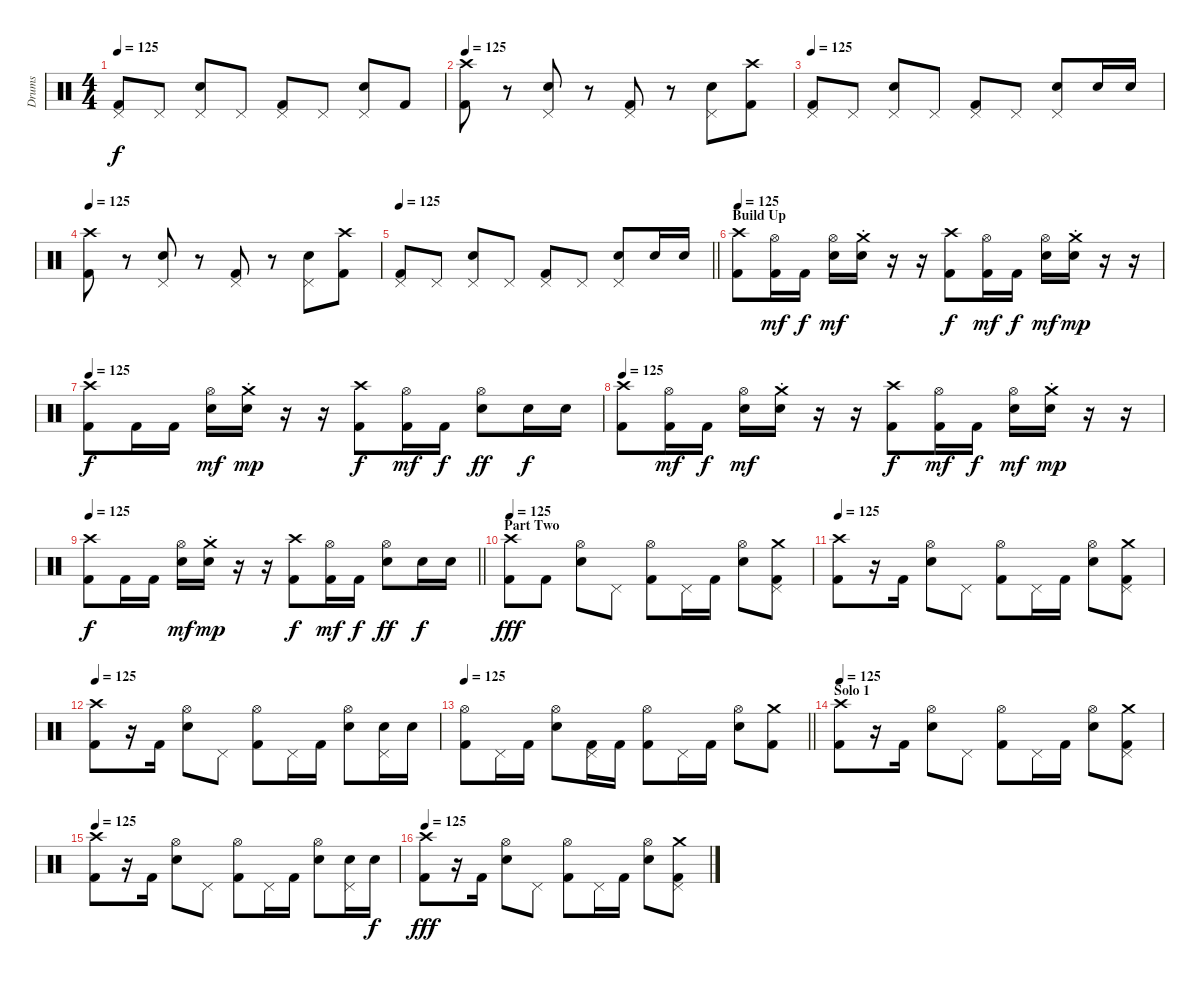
\track ("Drums" "Drums") {instrument percussion}
\staff {score}
\articulation defaults
\ts (4 4)
\tempo 125
\clef neutral
\ks c
("Pedal Hi-Hat (hit)" "Kick (hit) 2").8{dy f} "Pedal Hi-Hat (hit)".8 ("Pedal Hi-Hat (hit)" "Snare (hit) 2").8 "Pedal Hi-Hat (hit)".8 ("Pedal Hi-Hat (hit)" "Kick (hit) 2").8 "Pedal Hi-Hat (hit)".8 ("Pedal Hi-Hat (hit)" "Snare (hit) 2").8 "Kick (hit) 2".8 |
\tempo 125
("Crash high (hit)" "Kick (hit) 2").8 r.8 ("Pedal Hi-Hat (hit)" "Snare (hit) 2").8 r.8 ("Pedal Hi-Hat (hit)" "Kick (hit) 2").8 r.8 ("Pedal Hi-Hat (hit)" "Snare (hit) 2").8 ("Crash high (hit)" "Kick (hit) 2").8 |
\tempo 125
("Pedal Hi-Hat (hit)" "Kick (hit) 2").8 "Pedal Hi-Hat (hit)".8 ("Pedal Hi-Hat (hit)" "Snare (hit) 2").8 "Pedal Hi-Hat (hit)".8 ("Pedal Hi-Hat (hit)" "Kick (hit) 2").8 "Pedal Hi-Hat (hit)".8 ("Pedal Hi-Hat (hit)" "Snare (hit) 2").8 "Snare (hit) 2".16 "Snare (hit) 2".16 |
\tempo 125
("Crash high (hit)" "Kick (hit) 2").8 r.8 ("Pedal Hi-Hat (hit)" "Snare (hit) 2").8 r.8 ("Pedal Hi-Hat (hit)" "Kick (hit) 2").8 r.8 ("Pedal Hi-Hat (hit)" "Snare (hit) 2").8 ("Crash high (hit)" "Kick (hit) 2").8 |
\tempo 125
\barLineRight lightlight
("Pedal Hi-Hat (hit)" "Kick (hit) 2").8 "Pedal Hi-Hat (hit)".8 ("Pedal Hi-Hat (hit)" "Snare (hit) 2").8 "Pedal Hi-Hat (hit)".8 ("Pedal Hi-Hat (hit)" "Kick (hit) 2").8 "Pedal Hi-Hat (hit)".8 ("Pedal Hi-Hat (hit)" "Snare (hit) 2").8 "Snare (hit) 2".16 "Snare (hit) 2".16 |
\section ("" "Build Up")
\tempo 125
("Crash high (hit)" "Kick (hit) 2").8 ("Hi-Hat (open)" "Kick (hit) 2").16{dy mf} "Kick (hit) 2".16{dy f} ("Hi-Hat (open)" "Snare (hit) 2").16{dy mf} ("Crash medium (hit)" "Snare (hit) 2"{st}).16 r.16 r.16 ("Crash high (hit)" "Kick (hit) 2").8{dy f} ("Hi-Hat (open)" "Kick (hit) 2").16{dy mf} "Kick (hit) 2".16{dy f} ("Hi-Hat (open)" "Snare (hit) 2").16{dy mf} ("Crash medium (hit)" "Snare (hit) 2"{st}).16{dy mp} r.16 r.16 |
\tempo 125
("Crash high (hit)" "Kick (hit) 2").8{dy f} "Kick (hit) 2".16 "Kick (hit) 2".16 ("Hi-Hat (open)" "Snare (hit) 2").16{dy mf} ("Crash medium (hit)" "Snare (hit) 2"{st}).16{dy mp} r.16 r.16 ("Crash high (hit)" "Kick (hit) 2").8{dy f} ("Hi-Hat (open)" "Kick (hit) 2").16{dy mf} "Kick (hit) 2".16{dy f} ("Hi-Hat (open)" "Snare (hit) 2").8{dy ff} "Snare (hit) 2".16{dy f} "Snare (hit) 2".16 |
\tempo 125
("Crash high (hit)" "Kick (hit) 2").8 ("Hi-Hat (open)" "Kick (hit) 2").16{dy mf} "Kick (hit) 2".16{dy f} ("Hi-Hat (open)" "Snare (hit) 2").16{dy mf} ("Crash medium (hit)" "Snare (hit) 2"{st}).16 r.16 r.16 ("Crash high (hit)" "Kick (hit) 2").8{dy f} ("Hi-Hat (open)" "Kick (hit) 2").16{dy mf} "Kick (hit) 2".16{dy f} ("Hi-Hat (open)" "Snare (hit) 2").16{dy mf} ("Crash medium (hit)" "Snare (hit) 2"{st}).16{dy mp} r.16 r.16 |
\tempo 125
\barLineRight lightlight
("Crash high (hit)" "Kick (hit) 2").8{dy f} "Kick (hit) 2".16 "Kick (hit) 2".16 ("Hi-Hat (open)" "Snare (hit) 2").16{dy mf} ("Crash medium (hit)" "Snare (hit) 2"{st}).16{dy mp} r.16 r.16 ("Crash high (hit)" "Kick (hit) 2").8{dy f} ("Hi-Hat (open)" "Kick (hit) 2").16{dy mf} "Kick (hit) 2".16{dy f} ("Hi-Hat (open)" "Snare (hit) 2").8{dy ff} "Snare (hit) 2".16{dy f} "Snare (hit) 2".16 |
\section ("" "Part Two")
\tempo 125
("Crash high (hit)" "Kick (hit) 2").8{dy fff} "Kick (hit) 2".8 ("Hi-Hat (open)" "Snare (hit) 2").8 "Pedal Hi-Hat (hit)".8 ("Hi-Hat (open)" "Kick (hit) 2").8 "Pedal Hi-Hat (hit)".16 "Kick (hit) 2".16 ("Hi-Hat (open)" "Snare (hit) 2").8 ("Crash medium (hit)" "Pedal Hi-Hat (hit)" "Kick (hit) 2").8 |
\tempo 125
("Crash high (hit)" "Kick (hit) 2").8 r.16 "Kick (hit) 2".16 ("Hi-Hat (open)" "Snare (hit) 2").8 "Pedal Hi-Hat (hit)".8 ("Hi-Hat (open)" "Kick (hit) 2").8 "Pedal Hi-Hat (hit)".16 "Kick (hit) 2".16 ("Hi-Hat (open)" "Snare (hit) 2").8 ("Crash medium (hit)" "Pedal Hi-Hat (hit)" "Kick (hit) 2").8 |
\tempo 125
("Crash high (hit)" "Kick (hit) 2").8 r.16 "Kick (hit) 2".16 ("Hi-Hat (open)" "Snare (hit) 2").8 "Pedal Hi-Hat (hit)".8 ("Hi-Hat (open)" "Kick (hit) 2").8 "Pedal Hi-Hat (hit)".16 "Kick (hit) 2".16 ("Hi-Hat (open)" "Snare (hit) 2").8 ("Pedal Hi-Hat (hit)" "Snare (hit) 2").16 "Snare (hit) 2".16 |
\tempo 125
\barLineRight lightlight
("Hi-Hat (open)" "Kick (hit) 2").8 "Pedal Hi-Hat (hit)".16 "Kick (hit) 2".16 ("Hi-Hat (open)" "Snare (hit) 2").8 ("Pedal Hi-Hat (hit)" "Kick (hit) 2").16 "Kick (hit) 2".16 ("Hi-Hat (open)" "Kick (hit) 2").8 "Pedal Hi-Hat (hit)".16 "Kick (hit) 2".16 ("Hi-Hat (open)" "Snare (hit) 2").8 ("Crash medium (hit)" "Kick (hit) 2").8 |
\section ("" "Solo 1")
\tempo 125
("Crash high (hit)" "Kick (hit) 2").8 r.16 "Kick (hit) 2".16 ("Hi-Hat (open)" "Snare (hit) 2").8 "Pedal Hi-Hat (hit)".8 ("Hi-Hat (open)" "Kick (hit) 2").8 "Pedal Hi-Hat (hit)".16 "Kick (hit) 2".16 ("Hi-Hat (open)" "Snare (hit) 2").8 ("Crash medium (hit)" "Pedal Hi-Hat (hit)" "Kick (hit) 2").8 |
\tempo 125
("Crash high (hit)" "Kick (hit) 2").8 r.16 "Kick (hit) 2".16 ("Hi-Hat (open)" "Snare (hit) 2").8 "Pedal Hi-Hat (hit)".8 ("Hi-Hat (open)" "Kick (hit) 2").8 "Pedal Hi-Hat (hit)".16 "Kick (hit) 2".16 ("Hi-Hat (open)" "Snare (hit) 2").8 ("Pedal Hi-Hat (hit)" "Snare (hit) 2").16 "Snare (hit) 2".16{dy f} |
\tempo 125
("Crash high (hit)" "Kick (hit) 2").8{dy fff} r.16 "Kick (hit) 2".16 ("Hi-Hat (open)" "Snare (hit) 2").8 "Pedal Hi-Hat (hit)".8 ("Hi-Hat (open)" "Kick (hit) 2").8 "Pedal Hi-Hat (hit)".16 "Kick (hit) 2".16 ("Hi-Hat (open)" "Snare (hit) 2").8 ("Crash medium (hit)" "Pedal Hi-Hat (hit)" "Kick (hit) 2").8
